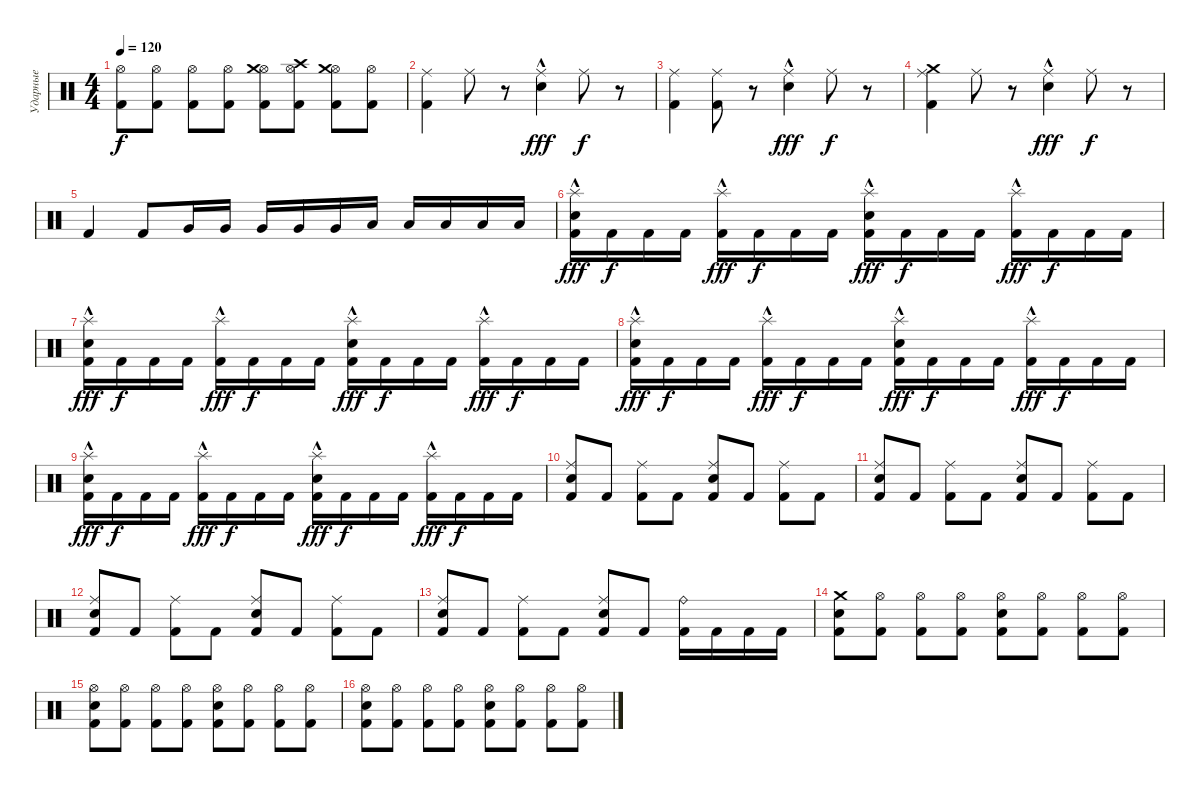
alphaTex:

\track ("Ударные" "Ударные") {instrument percussion}
\staff {score}
\articulation defaults
\ts (4 4)
\tempo 120
\clef neutral
\ks c
("Kick (hit) 2" "Hi-Hat (open)").8{dy f} ("Kick (hit) 2" "Hi-Hat (open)").8 ("Kick (hit) 2" "Hi-Hat (open)").8 ("Kick (hit) 2" "Hi-Hat (open)").8 ("Kick (hit) 2" "Hi-Hat (open)" "Crash medium (hit)").8 ("Kick (hit) 2" "Hi-Hat (open)" "Crash high (hit)").8 ("Kick (hit) 2" "Hi-Hat (open)" "Crash medium (hit)").8 ("Kick (hit) 2" "Hi-Hat (open)").8 |
("Kick (hit) 2" "Ride (middle)").4 "Ride (middle)".8 r.8 ("Electric Snare (hit)"{hac} "Ride (middle)").4{dy fff} "Ride (middle)".8{dy f} r.8 |
("Kick (hit) 2" "Ride (middle)").4 ("Kick (hit) 2" "Ride (middle)").8 r.8 ("Electric Snare (hit)"{hac} "Ride (middle)").4{dy fff} "Ride (middle)".8{dy f} r.8 |
("Kick (hit) 2" "Crash medium (hit)" "Ride (middle)").4 "Ride (middle)".8 r.8 ("Electric Snare (hit)"{hac} "Ride (middle)").4{dy fff} "Ride (middle)".8{dy f} r.8 |
"Kick (hit) 2".4 "Kick (hit) 2".8 "Very Low Tom (hit)".16 "Very Low Tom (hit)".16 "Very Low Tom (hit)".16 "Very Low Tom (hit)".16 "Very Low Tom (hit)".16 "Low Floor Tom (hit)".16 "Low Floor Tom (hit)".16 "Low Floor Tom (hit)".16 "Low Floor Tom (hit)".16 "Low Floor Tom (hit)".16 |
("Electric Snare (hit)" "Kick (hit) 2" "Splash (hit)"{hac}).16{dy fff} "Kick (hit) 2".16{dy f} "Kick (hit) 2".16 "Kick (hit) 2".16 ("Kick (hit) 2" "Splash (hit)"{hac}).16{dy fff} "Kick (hit) 2".16{dy f} "Kick (hit) 2".16 "Kick (hit) 2".16 ("Electric Snare (hit)" "Kick (hit) 2" "Splash (hit)"{hac}).16{dy fff} "Kick (hit) 2".16{dy f} "Kick (hit) 2".16 "Kick (hit) 2".16 ("Kick (hit) 2" "Splash (hit)"{hac}).16{dy fff} "Kick (hit) 2".16{dy f} "Kick (hit) 2".16 "Kick (hit) 2".16 |
("Electric Snare (hit)" "Kick (hit) 2" "Splash (hit)"{hac}).16{dy fff} "Kick (hit) 2".16{dy f} "Kick (hit) 2".16 "Kick (hit) 2".16 ("Kick (hit) 2" "Splash (hit)"{hac}).16{dy fff} "Kick (hit) 2".16{dy f} "Kick (hit) 2".16 "Kick (hit) 2".16 ("Electric Snare (hit)" "Kick (hit) 2" "Splash (hit)"{hac}).16{dy fff} "Kick (hit) 2".16{dy f} "Kick (hit) 2".16 "Kick (hit) 2".16 ("Kick (hit) 2" "Splash (hit)"{hac}).16{dy fff} "Kick (hit) 2".16{dy f} "Kick (hit) 2".16 "Kick (hit) 2".16 |
("Electric Snare (hit)" "Kick (hit) 2" "Splash (hit)"{hac}).16{dy fff} "Kick (hit) 2".16{dy f} "Kick (hit) 2".16 "Kick (hit) 2".16 ("Kick (hit) 2" "Splash (hit)"{hac}).16{dy fff} "Kick (hit) 2".16{dy f} "Kick (hit) 2".16 "Kick (hit) 2".16 ("Electric Snare (hit)" "Kick (hit) 2" "Splash (hit)"{hac}).16{dy fff} "Kick (hit) 2".16{dy f} "Kick (hit) 2".16 "Kick (hit) 2".16 ("Kick (hit) 2" "Splash (hit)"{hac}).16{dy fff} "Kick (hit) 2".16{dy f} "Kick (hit) 2".16 "Kick (hit) 2".16 |
("Electric Snare (hit)" "Kick (hit) 2" "Splash (hit)"{hac}).16{dy fff} "Kick (hit) 2".16{dy f} "Kick (hit) 2".16 "Kick (hit) 2".16 ("Kick (hit) 2" "Splash (hit)"{hac}).16{dy fff} "Kick (hit) 2".16{dy f} "Kick (hit) 2".16 "Kick (hit) 2".16 ("Electric Snare (hit)" "Kick (hit) 2" "Splash (hit)"{hac}).16{dy fff} "Kick (hit) 2".16{dy f} "Kick (hit) 2".16 "Kick (hit) 2".16 ("Kick (hit) 2" "Splash (hit)"{hac}).16{dy fff} "Kick (hit) 2".16{dy f} "Kick (hit) 2".16 "Kick (hit) 2".16 |
("Electric Snare (hit)" "Kick (hit) 2" "Ride (middle)").8 "Kick (hit) 2".8 ("Kick (hit) 2" "Ride (middle)").8 "Kick (hit) 2".8 ("Electric Snare (hit)" "Kick (hit) 2" "Ride (middle)").8 "Kick (hit) 2".8 ("Kick (hit) 2" "Ride (middle)").8 "Kick (hit) 2".8 |
("Electric Snare (hit)" "Kick (hit) 2" "Ride (middle)").8 "Kick (hit) 2".8 ("Kick (hit) 2" "Ride (middle)").8 "Kick (hit) 2".8 ("Electric Snare (hit)" "Kick (hit) 2" "Ride (middle)").8 "Kick (hit) 2".8 ("Kick (hit) 2" "Ride (middle)").8 "Kick (hit) 2".8 |
("Electric Snare (hit)" "Kick (hit) 2" "Ride (middle)").8 "Kick (hit) 2".8 ("Kick (hit) 2" "Ride (middle)").8 "Kick (hit) 2".8 ("Electric Snare (hit)" "Kick (hit) 2" "Ride (middle)").8 "Kick (hit) 2".8 ("Kick (hit) 2" "Ride (middle)").8 "Kick (hit) 2".8 |
("Electric Snare (hit)" "Kick (hit) 2" "Ride (middle)").8 "Kick (hit) 2".8 ("Kick (hit) 2" "Ride (middle)").8 "Kick (hit) 2".8 ("Electric Snare (hit)" "Kick (hit) 2" "Ride (middle)").8 "Kick (hit) 2".8 ("Kick (hit) 2" "Ride (bell)").16 "Kick (hit) 2".16 "Kick (hit) 2".16 "Kick (hit) 2".16 |
("Electric Snare (hit)" "Kick (hit) 2" "Crash medium (hit)").8 ("Kick (hit) 2" "Hi-Hat (open)").8 ("Kick (hit) 2" "Hi-Hat (open)").8 ("Kick (hit) 2" "Hi-Hat (open)").8 ("Electric Snare (hit)" "Kick (hit) 2" "Hi-Hat (open)").8 ("Kick (hit) 2" "Hi-Hat (open)").8 ("Kick (hit) 2" "Hi-Hat (open)").8 ("Kick (hit) 2" "Hi-Hat (open)").8 |
("Electric Snare (hit)" "Kick (hit) 2" "Hi-Hat (open)").8 ("Kick (hit) 2" "Hi-Hat (open)").8 ("Kick (hit) 2" "Hi-Hat (open)").8 ("Kick (hit) 2" "Hi-Hat (open)").8 ("Electric Snare (hit)" "Kick (hit) 2" "Hi-Hat (open)").8 ("Kick (hit) 2" "Hi-Hat (open)").8 ("Kick (hit) 2" "Hi-Hat (open)").8 ("Kick (hit) 2" "Hi-Hat (open)").8 |
("Electric Snare (hit)" "Kick (hit) 2" "Hi-Hat (open)").8 ("Kick (hit) 2" "Hi-Hat (open)").8 ("Kick (hit) 2" "Hi-Hat (open)").8 ("Kick (hit) 2" "Hi-Hat (open)").8 ("Electric Snare (hit)" "Kick (hit) 2" "Hi-Hat (open)").8 ("Kick (hit) 2" "Hi-Hat (open)").8 ("Kick (hit) 2" "Hi-Hat (open)").8 ("Kick (hit) 2" "Hi-Hat (open)").8
